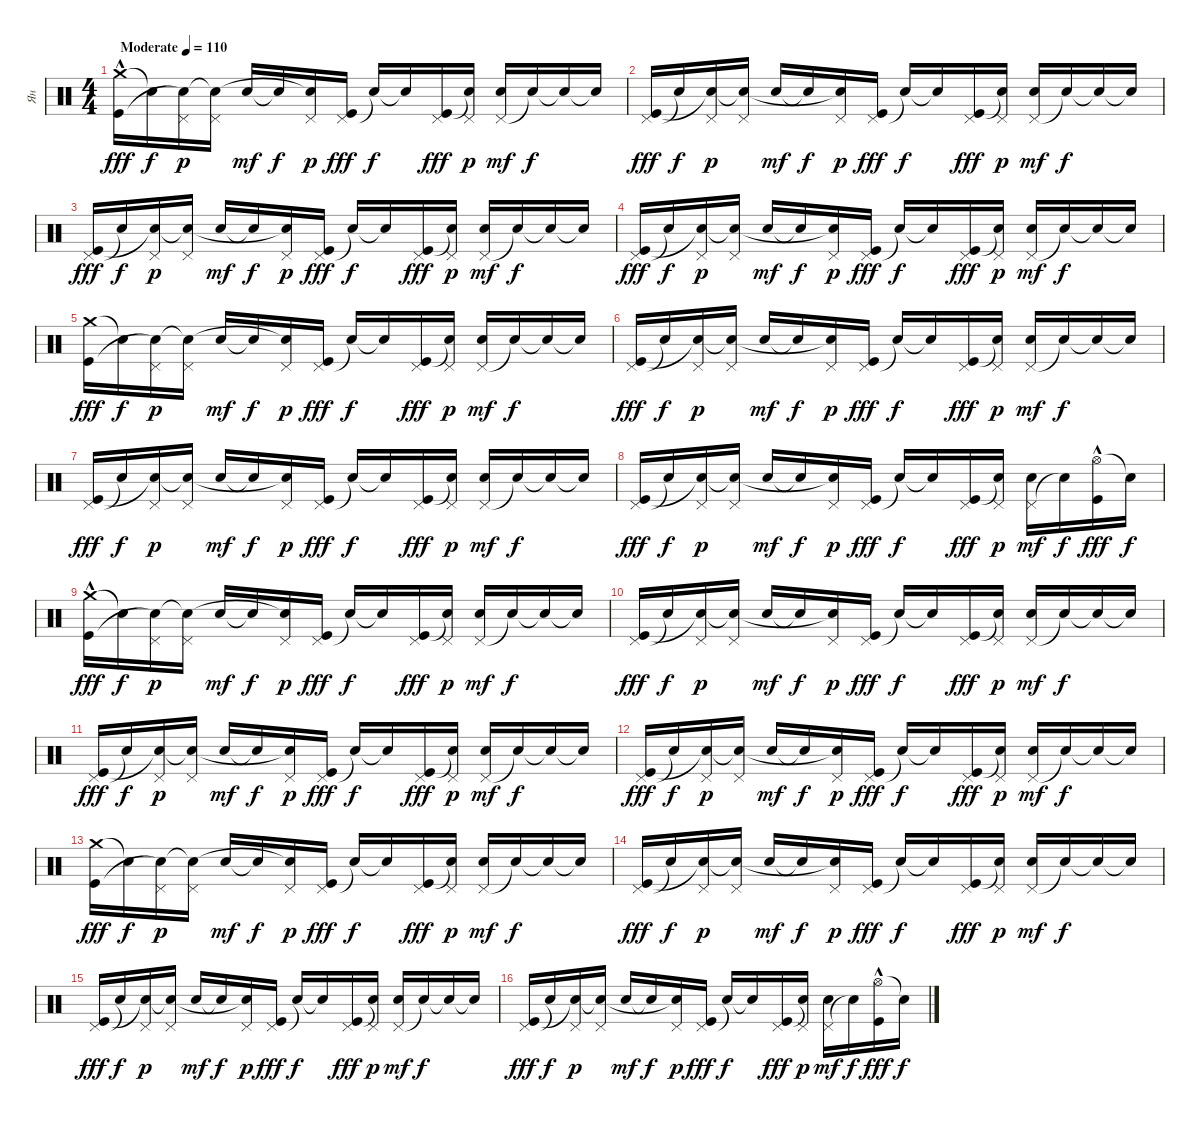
\track ("Ян " "Ян ") {instrument percussion}
\staff
\articulation defaults
\ts (4 4)
\tempo (110 "Moderate")
\clef neutral
\ks c
("Crash medium (hit)" "Kick (hit)"{hac}).16{dy fff} "Snare (hit)"{t}.16{dy f} ("Pedal Hi-Hat (hit)" "Snare (hit)"{t}).16{dy p} ("Pedal Hi-Hat (hit)" "Snare (hit)"{t}).16 "Snare (hit) 2".16{dy mf} "Snare (hit)"{t}.16{dy f} ("Pedal Hi-Hat (hit)" "Snare (hit)"{t}).16{dy p} ("Pedal Hi-Hat (hit)" "Kick (hit)").16{dy fff} "Snare (hit)"{t}.16{dy f} "Snare (hit)"{t}.16 ("Pedal Hi-Hat (hit)" "Kick (hit)").16{dy fff} ("Pedal Hi-Hat (hit)" "Snare (hit)"{t}).16{dy p} ("Pedal Hi-Hat (hit)" "Snare (hit) 2").16{dy mf} "Snare (hit)"{t}.16{dy f} "Snare (hit)"{t}.16 "Snare (hit)"{t}.16 |
("Pedal Hi-Hat (hit)" "Kick (hit)").16{dy fff} "Snare (hit)"{t}.16{dy f} ("Pedal Hi-Hat (hit)" "Snare (hit)"{t}).16{dy p} ("Pedal Hi-Hat (hit)" "Snare (hit)"{t}).16 "Snare (hit) 2".16{dy mf} "Snare (hit)"{t}.16{dy f} ("Pedal Hi-Hat (hit)" "Snare (hit)"{t}).16{dy p} ("Pedal Hi-Hat (hit)" "Kick (hit)").16{dy fff} "Snare (hit)"{t}.16{dy f} "Snare (hit)"{t}.16 ("Pedal Hi-Hat (hit)" "Kick (hit)").16{dy fff} ("Pedal Hi-Hat (hit)" "Snare (hit)"{t}).16{dy p} ("Pedal Hi-Hat (hit)" "Snare (hit) 2").16{dy mf} "Snare (hit)"{t}.16{dy f} "Snare (hit)"{t}.16 "Snare (hit)"{t}.16 |
("Pedal Hi-Hat (hit)" "Kick (hit)").16{dy fff} "Snare (hit)"{t}.16{dy f} ("Pedal Hi-Hat (hit)" "Snare (hit)"{t}).16{dy p} ("Pedal Hi-Hat (hit)" "Snare (hit)"{t}).16 "Snare (hit) 2".16{dy mf} "Snare (hit)"{t}.16{dy f} ("Pedal Hi-Hat (hit)" "Snare (hit)"{t}).16{dy p} ("Pedal Hi-Hat (hit)" "Kick (hit)").16{dy fff} "Snare (hit)"{t}.16{dy f} "Snare (hit)"{t}.16 ("Pedal Hi-Hat (hit)" "Kick (hit)").16{dy fff} ("Pedal Hi-Hat (hit)" "Snare (hit)"{t}).16{dy p} ("Pedal Hi-Hat (hit)" "Snare (hit) 2").16{dy mf} "Snare (hit)"{t}.16{dy f} "Snare (hit)"{t}.16 "Snare (hit)"{t}.16 |
("Pedal Hi-Hat (hit)" "Kick (hit)").16{dy fff} "Snare (hit)"{t}.16{dy f} ("Pedal Hi-Hat (hit)" "Snare (hit)"{t}).16{dy p} ("Pedal Hi-Hat (hit)" "Snare (hit)"{t}).16 "Snare (hit) 2".16{dy mf} "Snare (hit)"{t}.16{dy f} ("Pedal Hi-Hat (hit)" "Snare (hit)"{t}).16{dy p} ("Pedal Hi-Hat (hit)" "Kick (hit)").16{dy fff} "Snare (hit)"{t}.16{dy f} "Snare (hit)"{t}.16 ("Pedal Hi-Hat (hit)" "Kick (hit)").16{dy fff} ("Pedal Hi-Hat (hit)" "Snare (hit)"{t}).16{dy p} ("Pedal Hi-Hat (hit)" "Snare (hit) 2").16{dy mf} "Snare (hit)"{t}.16{dy f} "Snare (hit)"{t}.16 "Snare (hit)"{t}.16 |
("Crash medium (hit)" "Kick (hit)").16{dy fff} "Snare (hit)"{t}.16{dy f} ("Pedal Hi-Hat (hit)" "Snare (hit)"{t}).16{dy p} ("Pedal Hi-Hat (hit)" "Snare (hit)"{t}).16 "Snare (hit) 2".16{dy mf} "Snare (hit)"{t}.16{dy f} ("Pedal Hi-Hat (hit)" "Snare (hit)"{t}).16{dy p} ("Pedal Hi-Hat (hit)" "Kick (hit)").16{dy fff} "Snare (hit)"{t}.16{dy f} "Snare (hit)"{t}.16 ("Pedal Hi-Hat (hit)" "Kick (hit)").16{dy fff} ("Pedal Hi-Hat (hit)" "Snare (hit)"{t}).16{dy p} ("Pedal Hi-Hat (hit)" "Snare (hit) 2").16{dy mf} "Snare (hit)"{t}.16{dy f} "Snare (hit)"{t}.16 "Snare (hit)"{t}.16 |
("Pedal Hi-Hat (hit)" "Kick (hit)").16{dy fff} "Snare (hit)"{t}.16{dy f} ("Pedal Hi-Hat (hit)" "Snare (hit)"{t}).16{dy p} ("Pedal Hi-Hat (hit)" "Snare (hit)"{t}).16 "Snare (hit) 2".16{dy mf} "Snare (hit)"{t}.16{dy f} ("Pedal Hi-Hat (hit)" "Snare (hit)"{t}).16{dy p} ("Pedal Hi-Hat (hit)" "Kick (hit)").16{dy fff} "Snare (hit)"{t}.16{dy f} "Snare (hit)"{t}.16 ("Pedal Hi-Hat (hit)" "Kick (hit)").16{dy fff} ("Pedal Hi-Hat (hit)" "Snare (hit)"{t}).16{dy p} ("Pedal Hi-Hat (hit)" "Snare (hit) 2").16{dy mf} "Snare (hit)"{t}.16{dy f} "Snare (hit)"{t}.16 "Snare (hit)"{t}.16 |
("Pedal Hi-Hat (hit)" "Kick (hit)").16{dy fff} "Snare (hit)"{t}.16{dy f} ("Pedal Hi-Hat (hit)" "Snare (hit)"{t}).16{dy p} ("Pedal Hi-Hat (hit)" "Snare (hit)"{t}).16 "Snare (hit) 2".16{dy mf} "Snare (hit)"{t}.16{dy f} ("Pedal Hi-Hat (hit)" "Snare (hit)"{t}).16{dy p} ("Pedal Hi-Hat (hit)" "Kick (hit)").16{dy fff} "Snare (hit)"{t}.16{dy f} "Snare (hit)"{t}.16 ("Pedal Hi-Hat (hit)" "Kick (hit)").16{dy fff} ("Pedal Hi-Hat (hit)" "Snare (hit)"{t}).16{dy p} ("Pedal Hi-Hat (hit)" "Snare (hit) 2").16{dy mf} "Snare (hit)"{t}.16{dy f} "Snare (hit)"{t}.16 "Snare (hit)"{t}.16 |
("Pedal Hi-Hat (hit)" "Kick (hit)").16{dy fff} "Snare (hit)"{t}.16{dy f} ("Pedal Hi-Hat (hit)" "Snare (hit)"{t}).16{dy p} ("Pedal Hi-Hat (hit)" "Snare (hit)"{t}).16 "Snare (hit) 2".16{dy mf} "Snare (hit)"{t}.16{dy f} ("Pedal Hi-Hat (hit)" "Snare (hit)"{t}).16{dy p} ("Pedal Hi-Hat (hit)" "Kick (hit)").16{dy fff} "Snare (hit)"{t}.16{dy f} "Snare (hit)"{t}.16 ("Pedal Hi-Hat (hit)" "Kick (hit)").16{dy fff} ("Pedal Hi-Hat (hit)" "Snare (hit)"{t}).16{dy p} ("Pedal Hi-Hat (hit)" "Snare (hit) 2").16{dy mf} "Snare (hit)"{t}.16{dy f} ("Hi-Hat (open)" "Kick (hit)"{hac}).16{dy fff} "Snare (hit)"{t}.16{dy f} |
("Crash medium (hit)" "Kick (hit)"{hac}).16{dy fff} "Snare (hit)"{t}.16{dy f} ("Pedal Hi-Hat (hit)" "Snare (hit)"{t}).16{dy p} ("Pedal Hi-Hat (hit)" "Snare (hit)"{t}).16 "Snare (hit) 2".16{dy mf} "Snare (hit)"{t}.16{dy f} ("Pedal Hi-Hat (hit)" "Snare (hit)"{t}).16{dy p} ("Pedal Hi-Hat (hit)" "Kick (hit)").16{dy fff} "Snare (hit)"{t}.16{dy f} "Snare (hit)"{t}.16 ("Pedal Hi-Hat (hit)" "Kick (hit)").16{dy fff} ("Pedal Hi-Hat (hit)" "Snare (hit)"{t}).16{dy p} ("Pedal Hi-Hat (hit)" "Snare (hit) 2").16{dy mf} "Snare (hit)"{t}.16{dy f} "Snare (hit)"{t}.16 "Snare (hit)"{t}.16 |
("Pedal Hi-Hat (hit)" "Kick (hit)").16{dy fff} "Snare (hit)"{t}.16{dy f} ("Pedal Hi-Hat (hit)" "Snare (hit)"{t}).16{dy p} ("Pedal Hi-Hat (hit)" "Snare (hit)"{t}).16 "Snare (hit) 2".16{dy mf} "Snare (hit)"{t}.16{dy f} ("Pedal Hi-Hat (hit)" "Snare (hit)"{t}).16{dy p} ("Pedal Hi-Hat (hit)" "Kick (hit)").16{dy fff} "Snare (hit)"{t}.16{dy f} "Snare (hit)"{t}.16 ("Pedal Hi-Hat (hit)" "Kick (hit)").16{dy fff} ("Pedal Hi-Hat (hit)" "Snare (hit)"{t}).16{dy p} ("Pedal Hi-Hat (hit)" "Snare (hit) 2").16{dy mf} "Snare (hit)"{t}.16{dy f} "Snare (hit)"{t}.16 "Snare (hit)"{t}.16 |
("Pedal Hi-Hat (hit)" "Kick (hit)").16{dy fff} "Snare (hit)"{t}.16{dy f} ("Pedal Hi-Hat (hit)" "Snare (hit)"{t}).16{dy p} ("Pedal Hi-Hat (hit)" "Snare (hit)"{t}).16 "Snare (hit) 2".16{dy mf} "Snare (hit)"{t}.16{dy f} ("Pedal Hi-Hat (hit)" "Snare (hit)"{t}).16{dy p} ("Pedal Hi-Hat (hit)" "Kick (hit)").16{dy fff} "Snare (hit)"{t}.16{dy f} "Snare (hit)"{t}.16 ("Pedal Hi-Hat (hit)" "Kick (hit)").16{dy fff} ("Pedal Hi-Hat (hit)" "Snare (hit)"{t}).16{dy p} ("Pedal Hi-Hat (hit)" "Snare (hit) 2").16{dy mf} "Snare (hit)"{t}.16{dy f} "Snare (hit)"{t}.16 "Snare (hit)"{t}.16 |
("Pedal Hi-Hat (hit)" "Kick (hit)").16{dy fff} "Snare (hit)"{t}.16{dy f} ("Pedal Hi-Hat (hit)" "Snare (hit)"{t}).16{dy p} ("Pedal Hi-Hat (hit)" "Snare (hit)"{t}).16 "Snare (hit) 2".16{dy mf} "Snare (hit)"{t}.16{dy f} ("Pedal Hi-Hat (hit)" "Snare (hit)"{t}).16{dy p} ("Pedal Hi-Hat (hit)" "Kick (hit)").16{dy fff} "Snare (hit)"{t}.16{dy f} "Snare (hit)"{t}.16 ("Pedal Hi-Hat (hit)" "Kick (hit)").16{dy fff} ("Pedal Hi-Hat (hit)" "Snare (hit)"{t}).16{dy p} ("Pedal Hi-Hat (hit)" "Snare (hit) 2").16{dy mf} "Snare (hit)"{t}.16{dy f} "Snare (hit)"{t}.16 "Snare (hit)"{t}.16 |
("Crash medium (hit)" "Kick (hit)").16{dy fff} "Snare (hit)"{t}.16{dy f} ("Pedal Hi-Hat (hit)" "Snare (hit)"{t}).16{dy p} ("Pedal Hi-Hat (hit)" "Snare (hit)"{t}).16 "Snare (hit) 2".16{dy mf} "Snare (hit)"{t}.16{dy f} ("Pedal Hi-Hat (hit)" "Snare (hit)"{t}).16{dy p} ("Pedal Hi-Hat (hit)" "Kick (hit)").16{dy fff} "Snare (hit)"{t}.16{dy f} "Snare (hit)"{t}.16 ("Pedal Hi-Hat (hit)" "Kick (hit)").16{dy fff} ("Pedal Hi-Hat (hit)" "Snare (hit)"{t}).16{dy p} ("Pedal Hi-Hat (hit)" "Snare (hit) 2").16{dy mf} "Snare (hit)"{t}.16{dy f} "Snare (hit)"{t}.16 "Snare (hit)"{t}.16 |
("Pedal Hi-Hat (hit)" "Kick (hit)").16{dy fff} "Snare (hit)"{t}.16{dy f} ("Pedal Hi-Hat (hit)" "Snare (hit)"{t}).16{dy p} ("Pedal Hi-Hat (hit)" "Snare (hit)"{t}).16 "Snare (hit) 2".16{dy mf} "Snare (hit)"{t}.16{dy f} ("Pedal Hi-Hat (hit)" "Snare (hit)"{t}).16{dy p} ("Pedal Hi-Hat (hit)" "Kick (hit)").16{dy fff} "Snare (hit)"{t}.16{dy f} "Snare (hit)"{t}.16 ("Pedal Hi-Hat (hit)" "Kick (hit)").16{dy fff} ("Pedal Hi-Hat (hit)" "Snare (hit)"{t}).16{dy p} ("Pedal Hi-Hat (hit)" "Snare (hit) 2").16{dy mf} "Snare (hit)"{t}.16{dy f} "Snare (hit)"{t}.16 "Snare (hit)"{t}.16 |
("Pedal Hi-Hat (hit)" "Kick (hit)").16{dy fff} "Snare (hit)"{t}.16{dy f} ("Pedal Hi-Hat (hit)" "Snare (hit)"{t}).16{dy p} ("Pedal Hi-Hat (hit)" "Snare (hit)"{t}).16 "Snare (hit) 2".16{dy mf} "Snare (hit)"{t}.16{dy f} ("Pedal Hi-Hat (hit)" "Snare (hit)"{t}).16{dy p} ("Pedal Hi-Hat (hit)" "Kick (hit)").16{dy fff} "Snare (hit)"{t}.16{dy f} "Snare (hit)"{t}.16 ("Pedal Hi-Hat (hit)" "Kick (hit)").16{dy fff} ("Pedal Hi-Hat (hit)" "Snare (hit)"{t}).16{dy p} ("Pedal Hi-Hat (hit)" "Snare (hit) 2").16{dy mf} "Snare (hit)"{t}.16{dy f} "Snare (hit)"{t}.16 "Snare (hit)"{t}.16 |
("Pedal Hi-Hat (hit)" "Kick (hit)").16{dy fff} "Snare (hit)"{t}.16{dy f} ("Pedal Hi-Hat (hit)" "Snare (hit)"{t}).16{dy p} ("Pedal Hi-Hat (hit)" "Snare (hit)"{t}).16 "Snare (hit) 2".16{dy mf} "Snare (hit)"{t}.16{dy f} ("Pedal Hi-Hat (hit)" "Snare (hit)"{t}).16{dy p} ("Pedal Hi-Hat (hit)" "Kick (hit)").16{dy fff} "Snare (hit)"{t}.16{dy f} "Snare (hit)"{t}.16 ("Pedal Hi-Hat (hit)" "Kick (hit)").16{dy fff} ("Pedal Hi-Hat (hit)" "Snare (hit)"{t}).16{dy p} ("Pedal Hi-Hat (hit)" "Snare (hit) 2").16{dy mf} "Snare (hit)"{t}.16{dy f} ("Hi-Hat (open)" "Kick (hit)"{hac}).16{dy fff} "Snare (hit)"{t}.16{dy f}
